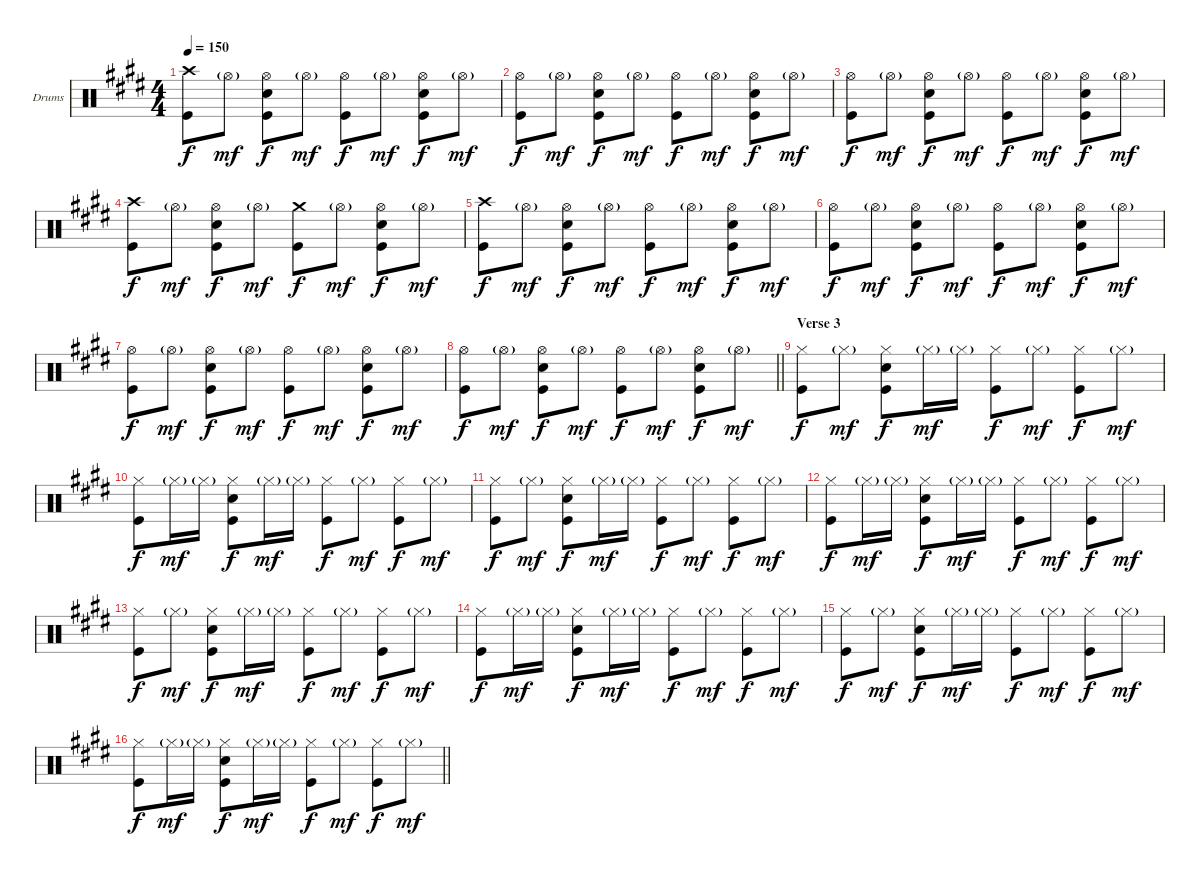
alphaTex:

\bracketExtendMode groupsimilarinstruments
\firstSystemTrackNameOrientation horizontal
\otherSystemsTrackNameOrientation horizontal
\track ("Drumkit" "Drums") {instrument percussion}
\staff {score}
\articulation defaults
\ts (4 4)
\tempo 150
\clef neutral
\ks e
("Crash high (hit)" "Kick (hit)").8{dy f} "Hi-Hat (open)"{g}.8{dy mf} ("Hi-Hat (open)" "Snare (hit) 2" "Kick (hit)").8{dy f} "Hi-Hat (open)"{g}.8{dy mf} ("Hi-Hat (open)" "Kick (hit)").8{dy f} "Hi-Hat (open)"{g}.8{dy mf} ("Hi-Hat (open)" "Snare (hit) 2" "Kick (hit)").8{dy f} "Hi-Hat (open)"{g}.8{dy mf} |
("Hi-Hat (open)" "Kick (hit)").8{dy f} "Hi-Hat (open)"{g}.8{dy mf} ("Hi-Hat (open)" "Snare (hit) 2" "Kick (hit)").8{dy f} "Hi-Hat (open)"{g}.8{dy mf} ("Hi-Hat (open)" "Kick (hit)").8{dy f} "Hi-Hat (open)"{g}.8{dy mf} ("Hi-Hat (open)" "Snare (hit) 2" "Kick (hit)").8{dy f} "Hi-Hat (open)"{g}.8{dy mf} |
("Hi-Hat (open)" "Kick (hit)").8{dy f} "Hi-Hat (open)"{g}.8{dy mf} ("Hi-Hat (open)" "Snare (hit) 2" "Kick (hit)").8{dy f} "Hi-Hat (open)"{g}.8{dy mf} ("Hi-Hat (open)" "Kick (hit)").8{dy f} "Hi-Hat (open)"{g}.8{dy mf} ("Hi-Hat (open)" "Snare (hit) 2" "Kick (hit)").8{dy f} "Hi-Hat (open)"{g}.8{dy mf} |
("Crash high (hit)" "Kick (hit)").8{dy f} "Hi-Hat (open)"{g}.8{dy mf} ("Hi-Hat (open)" "Snare (hit) 2" "Kick (hit)").8{dy f} "Hi-Hat (open)"{g}.8{dy mf} ("Crash medium (hit)" "Kick (hit)").8{dy f} "Hi-Hat (open)"{g}.8{dy mf} ("Hi-Hat (open)" "Snare (hit) 2" "Kick (hit)").8{dy f} "Hi-Hat (open)"{g}.8{dy mf} |
("Crash high (hit)" "Kick (hit)").8{dy f} "Hi-Hat (open)"{g}.8{dy mf} ("Hi-Hat (open)" "Snare (hit) 2" "Kick (hit)").8{dy f} "Hi-Hat (open)"{g}.8{dy mf} ("Hi-Hat (open)" "Kick (hit)").8{dy f} "Hi-Hat (open)"{g}.8{dy mf} ("Hi-Hat (open)" "Snare (hit) 2" "Kick (hit)").8{dy f} "Hi-Hat (open)"{g}.8{dy mf} |
("Hi-Hat (open)" "Kick (hit)").8{dy f} "Hi-Hat (open)"{g}.8{dy mf} ("Hi-Hat (open)" "Snare (hit) 2" "Kick (hit)").8{dy f} "Hi-Hat (open)"{g}.8{dy mf} ("Hi-Hat (open)" "Kick (hit)").8{dy f} "Hi-Hat (open)"{g}.8{dy mf} ("Hi-Hat (open)" "Snare (hit) 2" "Kick (hit)").8{dy f} "Hi-Hat (open)"{g}.8{dy mf} |
("Hi-Hat (open)" "Kick (hit)").8{dy f} "Hi-Hat (open)"{g}.8{dy mf} ("Hi-Hat (open)" "Snare (hit) 2" "Kick (hit)").8{dy f} "Hi-Hat (open)"{g}.8{dy mf} ("Hi-Hat (open)" "Kick (hit)").8{dy f} "Hi-Hat (open)"{g}.8{dy mf} ("Hi-Hat (open)" "Snare (hit) 2" "Kick (hit)").8{dy f} "Hi-Hat (open)"{g}.8{dy mf} |
\barLineRight lightlight
("Hi-Hat (open)" "Kick (hit)").8{dy f} "Hi-Hat (open)"{g}.8{dy mf} ("Hi-Hat (open)" "Snare (hit) 2" "Kick (hit)").8{dy f} "Hi-Hat (open)"{g}.8{dy mf} ("Hi-Hat (open)" "Kick (hit)").8{dy f} "Hi-Hat (open)"{g}.8{dy mf} ("Hi-Hat (open)" "Snare (hit) 2" "Kick (hit)").8{dy f} "Hi-Hat (open)"{g}.8{dy mf} |
\section ("" "Verse 3")
("Hi-Hat (closed)" "Kick (hit)").8{dy f} "Hi-Hat (closed)"{g}.8{dy mf} ("Hi-Hat (closed)" "Snare (hit) 2" "Kick (hit)").8{dy f} "Hi-Hat (closed)"{g}.16{dy mf} "Hi-Hat (closed)"{g}.16 ("Hi-Hat (closed)" "Kick (hit)").8{dy f} "Hi-Hat (closed)"{g}.8{dy mf} ("Hi-Hat (closed)" "Kick (hit)").8{dy f} "Hi-Hat (closed)"{g}.8{dy mf} |
("Hi-Hat (closed)" "Kick (hit)").8{dy f} "Hi-Hat (closed)"{g}.16{dy mf} "Hi-Hat (closed)"{g}.16 ("Hi-Hat (closed)" "Snare (hit) 2" "Kick (hit)").8{dy f} "Hi-Hat (closed)"{g}.16{dy mf} "Hi-Hat (closed)"{g}.16 ("Hi-Hat (closed)" "Kick (hit)").8{dy f} "Hi-Hat (closed)"{g}.8{dy mf} ("Hi-Hat (closed)" "Kick (hit)").8{dy f} "Hi-Hat (closed)"{g}.8{dy mf} |
("Hi-Hat (closed)" "Kick (hit)").8{dy f} "Hi-Hat (closed)"{g}.8{dy mf} ("Hi-Hat (closed)" "Snare (hit) 2" "Kick (hit)").8{dy f} "Hi-Hat (closed)"{g}.16{dy mf} "Hi-Hat (closed)"{g}.16 ("Hi-Hat (closed)" "Kick (hit)").8{dy f} "Hi-Hat (closed)"{g}.8{dy mf} ("Hi-Hat (closed)" "Kick (hit)").8{dy f} "Hi-Hat (closed)"{g}.8{dy mf} |
("Hi-Hat (closed)" "Kick (hit)").8{dy f} "Hi-Hat (closed)"{g}.16{dy mf} "Hi-Hat (closed)"{g}.16 ("Hi-Hat (closed)" "Snare (hit) 2" "Kick (hit)").8{dy f} "Hi-Hat (closed)"{g}.16{dy mf} "Hi-Hat (closed)"{g}.16 ("Hi-Hat (closed)" "Kick (hit)").8{dy f} "Hi-Hat (closed)"{g}.8{dy mf} ("Hi-Hat (closed)" "Kick (hit)").8{dy f} "Hi-Hat (closed)"{g}.8{dy mf} |
("Hi-Hat (closed)" "Kick (hit)").8{dy f} "Hi-Hat (closed)"{g}.8{dy mf} ("Hi-Hat (closed)" "Snare (hit) 2" "Kick (hit)").8{dy f} "Hi-Hat (closed)"{g}.16{dy mf} "Hi-Hat (closed)"{g}.16 ("Hi-Hat (closed)" "Kick (hit)").8{dy f} "Hi-Hat (closed)"{g}.8{dy mf} ("Hi-Hat (closed)" "Kick (hit)").8{dy f} "Hi-Hat (closed)"{g}.8{dy mf} |
("Hi-Hat (closed)" "Kick (hit)").8{dy f} "Hi-Hat (closed)"{g}.16{dy mf} "Hi-Hat (closed)"{g}.16 ("Hi-Hat (closed)" "Snare (hit) 2" "Kick (hit)").8{dy f} "Hi-Hat (closed)"{g}.16{dy mf} "Hi-Hat (closed)"{g}.16 ("Hi-Hat (closed)" "Kick (hit)").8{dy f} "Hi-Hat (closed)"{g}.8{dy mf} ("Hi-Hat (closed)" "Kick (hit)").8{dy f} "Hi-Hat (closed)"{g}.8{dy mf} |
("Hi-Hat (closed)" "Kick (hit)").8{dy f} "Hi-Hat (closed)"{g}.8{dy mf} ("Hi-Hat (closed)" "Snare (hit) 2" "Kick (hit)").8{dy f} "Hi-Hat (closed)"{g}.16{dy mf} "Hi-Hat (closed)"{g}.16 ("Hi-Hat (closed)" "Kick (hit)").8{dy f} "Hi-Hat (closed)"{g}.8{dy mf} ("Hi-Hat (closed)" "Kick (hit)").8{dy f} "Hi-Hat (closed)"{g}.8{dy mf} |
\barLineRight lightlight
("Hi-Hat (closed)" "Kick (hit)").8{dy f} "Hi-Hat (closed)"{g}.16{dy mf} "Hi-Hat (closed)"{g}.16 ("Hi-Hat (closed)" "Snare (hit) 2" "Kick (hit)").8{dy f} "Hi-Hat (closed)"{g}.16{dy mf} "Hi-Hat (closed)"{g}.16 ("Hi-Hat (closed)" "Kick (hit)").8{dy f} "Hi-Hat (closed)"{g}.8{dy mf} ("Hi-Hat (closed)" "Kick (hit)").8{dy f} "Hi-Hat (closed)"{g}.8{dy mf}
